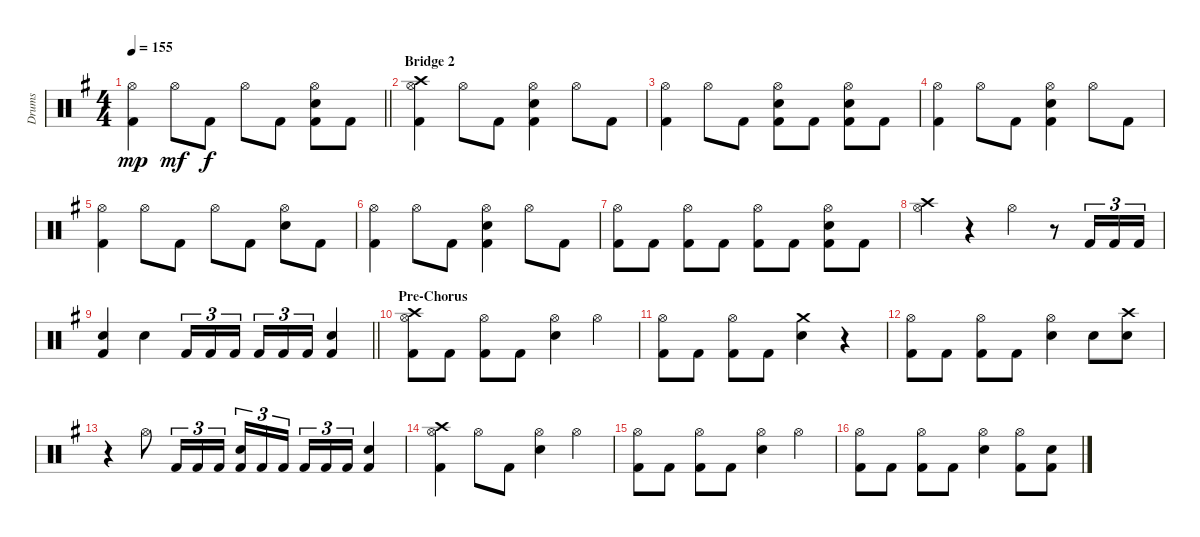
\track ("Drums" "Drums") {instrument percussion}
\staff {score}
\articulation defaults
\ts (4 4)
\tempo 155
\clef neutral
\barLineRight lightlight
\ks g
("Hi-Hat (open)" "Kick (hit) 2").4{dy mp} "Hi-Hat (open)".8{dy mf} "Kick (hit) 2".8{dy f} "Hi-Hat (open)".8 "Kick (hit) 2".8 ("Hi-Hat (open)" "Snare (hit) 2" "Kick (hit) 2").8 "Kick (hit) 2".8 |
\section ("" "Bridge 2")
("Crash high (hit)" "Hi-Hat (open)" "Kick (hit) 2").4 "Hi-Hat (open)".8 "Kick (hit) 2".8 ("Hi-Hat (open)" "Snare (hit) 2" "Kick (hit) 2").4 "Hi-Hat (open)".8 "Kick (hit) 2".8 |
("Hi-Hat (open)" "Kick (hit) 2").4 "Hi-Hat (open)".8 "Kick (hit) 2".8 ("Hi-Hat (open)" "Snare (hit) 2" "Kick (hit) 2").8 "Kick (hit) 2".8 ("Hi-Hat (open)" "Snare (hit) 2" "Kick (hit) 2").8 "Kick (hit) 2".8 |
("Hi-Hat (open)" "Kick (hit) 2").4 "Hi-Hat (open)".8 "Kick (hit) 2".8 ("Hi-Hat (open)" "Snare (hit) 2" "Kick (hit) 2").4 "Hi-Hat (open)".8 "Kick (hit) 2".8 |
("Hi-Hat (open)" "Kick (hit) 2").4 "Hi-Hat (open)".8 "Kick (hit) 2".8 "Hi-Hat (open)".8 "Kick (hit) 2".8 ("Hi-Hat (open)" "Snare (hit) 2").8 "Kick (hit) 2".8 |
("Hi-Hat (open)" "Kick (hit) 2").4 "Hi-Hat (open)".8 "Kick (hit) 2".8 ("Hi-Hat (open)" "Snare (hit) 2" "Kick (hit) 2").4 "Hi-Hat (open)".8 "Kick (hit) 2".8 |
("Hi-Hat (open)" "Kick (hit) 2").8 "Kick (hit) 2".8 ("Hi-Hat (open)" "Kick (hit) 2").8 "Kick (hit) 2".8 ("Hi-Hat (open)" "Kick (hit) 2").8 "Kick (hit) 2".8 ("Hi-Hat (open)" "Snare (hit) 2" "Kick (hit) 2").8 "Kick (hit) 2".8 |
("Crash high (hit)" "Hi-Hat (open)").4 r.4 "Hi-Hat (open)".4 r.8 "Kick (hit) 2".16{tu (3 2)} "Kick (hit) 2".16{tu (3 2)} "Kick (hit) 2".16{tu (3 2)} |
\barLineRight lightlight
("Snare (hit) 2" "Kick (hit) 2").4 "Snare (hit) 2".4 "Kick (hit) 2".16{tu (3 2)} "Kick (hit) 2".16{tu (3 2)} "Kick (hit) 2".16{tu (3 2) beam splitsecondary} "Kick (hit) 2".16{tu (3 2)} "Kick (hit) 2".16{tu (3 2)} "Kick (hit) 2".16{tu (3 2)} ("Snare (hit) 2" "Kick (hit) 2").4 |
\section ("" "Pre-Chorus")
("Crash high (hit)" "Hi-Hat (open)" "Kick (hit) 2").8 "Kick (hit) 2".8 ("Hi-Hat (open)" "Kick (hit) 2").8 "Kick (hit) 2".8 ("Hi-Hat (open)" "Snare (hit) 2").4 "Hi-Hat (open)".4 |
("Hi-Hat (open)" "Kick (hit) 2").8 "Kick (hit) 2".8 ("Hi-Hat (open)" "Kick (hit) 2").8 "Kick (hit) 2".8 ("Crash medium (hit)" "Snare (hit) 2").4 r.4 |
("Hi-Hat (open)" "Kick (hit) 2").8 "Kick (hit) 2".8 ("Hi-Hat (open)" "Kick (hit) 2").8 "Kick (hit) 2".8 ("Hi-Hat (open)" "Snare (hit) 2").4 "Snare (hit) 2".8 ("Crash high (hit)" "Snare (hit) 2").8 |
r.4 "Hi-Hat (open)".8 "Kick (hit) 2".16{tu (3 2)} "Kick (hit) 2".16{tu (3 2)} "Kick (hit) 2".16{tu (3 2)} ("Snare (hit) 2" "Kick (hit) 2").16{tu (3 2)} "Kick (hit) 2".16{tu (3 2)} "Kick (hit) 2".16{tu (3 2) beam splitsecondary} "Kick (hit) 2".16{tu (3 2)} "Kick (hit) 2".16{tu (3 2)} "Kick (hit) 2".16{tu (3 2)} ("Snare (hit) 2" "Kick (hit) 2").4 |
("Crash high (hit)" "Hi-Hat (open)" "Kick (hit) 2").4 "Hi-Hat (open)".8 "Kick (hit) 2".8 ("Hi-Hat (open)" "Snare (hit) 2").4 "Hi-Hat (open)".4 |
("Hi-Hat (open)" "Kick (hit) 2").8 "Kick (hit) 2".8 ("Hi-Hat (open)" "Kick (hit) 2").8 "Kick (hit) 2".8 ("Hi-Hat (open)" "Snare (hit) 2").4 "Hi-Hat (open)".4 |
("Hi-Hat (open)" "Kick (hit) 2").8 "Kick (hit) 2".8 ("Hi-Hat (open)" "Kick (hit) 2").8 "Kick (hit) 2".8 ("Hi-Hat (open)" "Snare (hit) 2").4 ("Hi-Hat (open)" "Kick (hit) 2").8 ("Snare (hit) 2" "Kick (hit) 2").8
